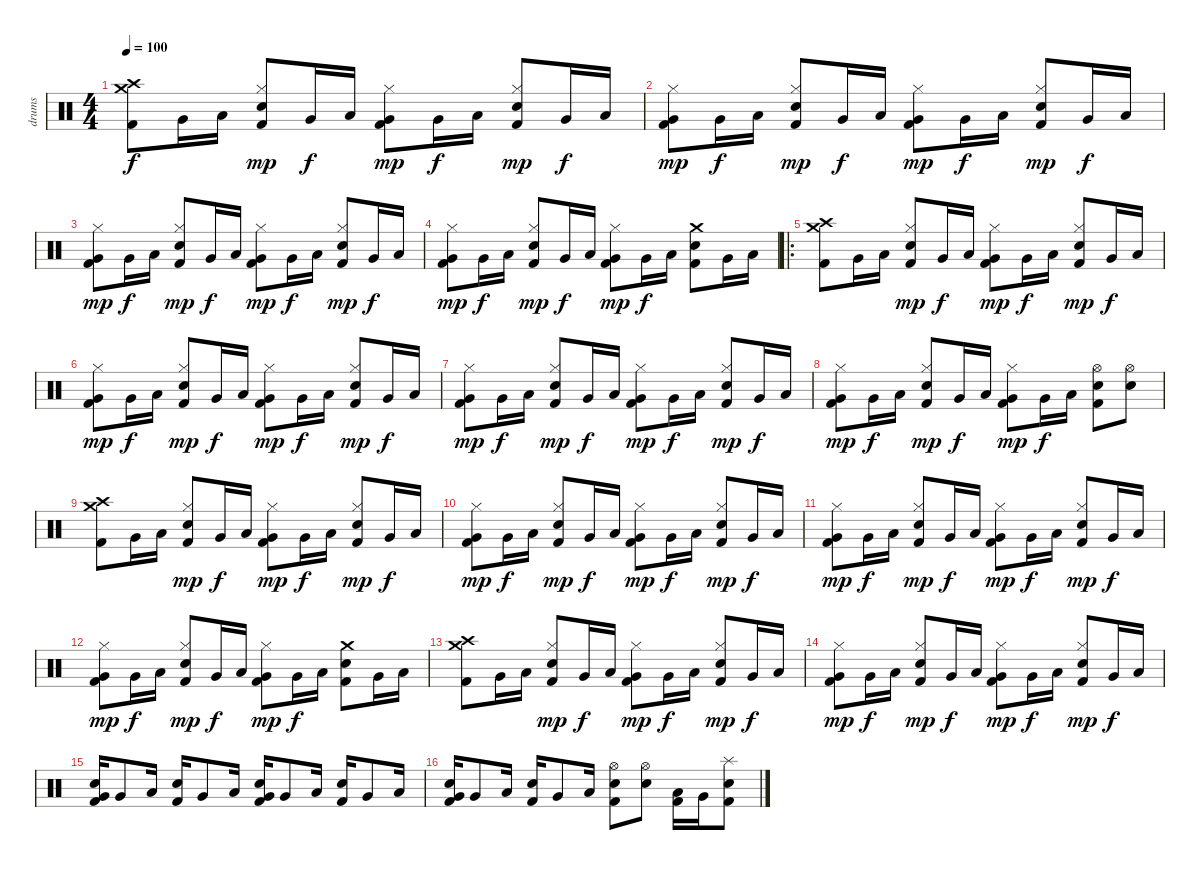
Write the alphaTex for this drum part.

\track ("drums" "drums") {instrument percussion}
\staff {score}
\articulation defaults
\ts (4 4)
\tempo 100
\clef neutral
\ks c
("Crash high (hit)" "Crash medium (hit)" "Kick (hit) 2").8{dy f} "Very Low Tom (hit)".16 "Low Floor Tom (hit)".16 ("Hi-Hat (closed)" "Electric Snare (hit)" "Kick (hit) 2").8{dy mp} "Very Low Tom (hit)".16{dy f} "Low Floor Tom (hit)".16 ("Hi-Hat (closed)" "Very Low Tom (hit)" "Kick (hit) 2").8{dy mp} "Very Low Tom (hit)".16{dy f} "Low Floor Tom (hit)".16 ("Hi-Hat (closed)" "Electric Snare (hit)" "Kick (hit) 2").8{dy mp} "Very Low Tom (hit)".16{dy f} "Low Floor Tom (hit)".16 |
("Hi-Hat (closed)" "Very Low Tom (hit)" "Kick (hit) 2").8{dy mp} "Very Low Tom (hit)".16{dy f} "Low Floor Tom (hit)".16 ("Hi-Hat (closed)" "Electric Snare (hit)" "Kick (hit) 2").8{dy mp} "Very Low Tom (hit)".16{dy f} "Low Floor Tom (hit)".16 ("Hi-Hat (closed)" "Very Low Tom (hit)" "Kick (hit) 2").8{dy mp} "Very Low Tom (hit)".16{dy f} "Low Floor Tom (hit)".16 ("Hi-Hat (closed)" "Electric Snare (hit)" "Kick (hit) 2").8{dy mp} "Very Low Tom (hit)".16{dy f} "Low Floor Tom (hit)".16 |
("Hi-Hat (closed)" "Very Low Tom (hit)" "Kick (hit) 2").8{dy mp} "Very Low Tom (hit)".16{dy f} "Low Floor Tom (hit)".16 ("Hi-Hat (closed)" "Electric Snare (hit)" "Kick (hit) 2").8{dy mp} "Very Low Tom (hit)".16{dy f} "Low Floor Tom (hit)".16 ("Hi-Hat (closed)" "Very Low Tom (hit)" "Kick (hit) 2").8{dy mp} "Very Low Tom (hit)".16{dy f} "Low Floor Tom (hit)".16 ("Hi-Hat (closed)" "Electric Snare (hit)" "Kick (hit) 2").8{dy mp} "Very Low Tom (hit)".16{dy f} "Low Floor Tom (hit)".16 |
("Hi-Hat (closed)" "Very Low Tom (hit)" "Kick (hit) 2").8{dy mp} "Very Low Tom (hit)".16{dy f} "Low Floor Tom (hit)".16 ("Hi-Hat (closed)" "Electric Snare (hit)" "Kick (hit) 2").8{dy mp} "Very Low Tom (hit)".16{dy f} "Low Floor Tom (hit)".16 ("Hi-Hat (closed)" "Very Low Tom (hit)" "Kick (hit) 2").8{dy mp} "Very Low Tom (hit)".16{dy f} "Low Floor Tom (hit)".16 ("Crash medium (hit)" "Electric Snare (hit)" "Kick (hit) 2").8 "Very Low Tom (hit)".16 "Low Floor Tom (hit)".16 |
\ro
("Crash high (hit)" "Crash medium (hit)" "Kick (hit) 2").8 "Very Low Tom (hit)".16 "Low Floor Tom (hit)".16 ("Hi-Hat (closed)" "Electric Snare (hit)" "Kick (hit) 2").8{dy mp} "Very Low Tom (hit)".16{dy f} "Low Floor Tom (hit)".16 ("Hi-Hat (closed)" "Very Low Tom (hit)" "Kick (hit) 2").8{dy mp} "Very Low Tom (hit)".16{dy f} "Low Floor Tom (hit)".16 ("Hi-Hat (closed)" "Electric Snare (hit)" "Kick (hit) 2").8{dy mp} "Very Low Tom (hit)".16{dy f} "Low Floor Tom (hit)".16 |
("Hi-Hat (closed)" "Very Low Tom (hit)" "Kick (hit) 2").8{dy mp} "Very Low Tom (hit)".16{dy f} "Low Floor Tom (hit)".16 ("Hi-Hat (closed)" "Electric Snare (hit)" "Kick (hit) 2").8{dy mp} "Very Low Tom (hit)".16{dy f} "Low Floor Tom (hit)".16 ("Hi-Hat (closed)" "Very Low Tom (hit)" "Kick (hit) 2").8{dy mp} "Very Low Tom (hit)".16{dy f} "Low Floor Tom (hit)".16 ("Hi-Hat (closed)" "Electric Snare (hit)" "Kick (hit) 2").8{dy mp} "Very Low Tom (hit)".16{dy f} "Low Floor Tom (hit)".16 |
("Hi-Hat (closed)" "Very Low Tom (hit)" "Kick (hit) 2").8{dy mp} "Very Low Tom (hit)".16{dy f} "Low Floor Tom (hit)".16 ("Hi-Hat (closed)" "Electric Snare (hit)" "Kick (hit) 2").8{dy mp} "Very Low Tom (hit)".16{dy f} "Low Floor Tom (hit)".16 ("Hi-Hat (closed)" "Very Low Tom (hit)" "Kick (hit) 2").8{dy mp} "Very Low Tom (hit)".16{dy f} "Low Floor Tom (hit)".16 ("Hi-Hat (closed)" "Electric Snare (hit)" "Kick (hit) 2").8{dy mp} "Very Low Tom (hit)".16{dy f} "Low Floor Tom (hit)".16 |
("Hi-Hat (closed)" "Very Low Tom (hit)" "Kick (hit) 2").8{dy mp} "Very Low Tom (hit)".16{dy f} "Low Floor Tom (hit)".16 ("Hi-Hat (closed)" "Electric Snare (hit)" "Kick (hit) 2").8{dy mp} "Very Low Tom (hit)".16{dy f} "Low Floor Tom (hit)".16 ("Hi-Hat (closed)" "Very Low Tom (hit)" "Kick (hit) 2").8{dy mp} "Very Low Tom (hit)".16{dy f} "Low Floor Tom (hit)".16 ("Hi-Hat (open)" "Electric Snare (hit)" "Kick (hit) 2").8 ("Hi-Hat (open)" "Electric Snare (hit)").8 |
("Crash high (hit)" "Crash medium (hit)" "Kick (hit) 2").8 "Very Low Tom (hit)".16 "Low Floor Tom (hit)".16 ("Hi-Hat (closed)" "Electric Snare (hit)" "Kick (hit) 2").8{dy mp} "Very Low Tom (hit)".16{dy f} "Low Floor Tom (hit)".16 ("Hi-Hat (closed)" "Very Low Tom (hit)" "Kick (hit) 2").8{dy mp} "Very Low Tom (hit)".16{dy f} "Low Floor Tom (hit)".16 ("Hi-Hat (closed)" "Electric Snare (hit)" "Kick (hit) 2").8{dy mp} "Very Low Tom (hit)".16{dy f} "Low Floor Tom (hit)".16 |
("Hi-Hat (closed)" "Very Low Tom (hit)" "Kick (hit) 2").8{dy mp} "Very Low Tom (hit)".16{dy f} "Low Floor Tom (hit)".16 ("Hi-Hat (closed)" "Electric Snare (hit)" "Kick (hit) 2").8{dy mp} "Very Low Tom (hit)".16{dy f} "Low Floor Tom (hit)".16 ("Hi-Hat (closed)" "Very Low Tom (hit)" "Kick (hit) 2").8{dy mp} "Very Low Tom (hit)".16{dy f} "Low Floor Tom (hit)".16 ("Hi-Hat (closed)" "Electric Snare (hit)" "Kick (hit) 2").8{dy mp} "Very Low Tom (hit)".16{dy f} "Low Floor Tom (hit)".16 |
("Hi-Hat (closed)" "Very Low Tom (hit)" "Kick (hit) 2").8{dy mp} "Very Low Tom (hit)".16{dy f} "Low Floor Tom (hit)".16 ("Hi-Hat (closed)" "Electric Snare (hit)" "Kick (hit) 2").8{dy mp} "Very Low Tom (hit)".16{dy f} "Low Floor Tom (hit)".16 ("Hi-Hat (closed)" "Very Low Tom (hit)" "Kick (hit) 2").8{dy mp} "Very Low Tom (hit)".16{dy f} "Low Floor Tom (hit)".16 ("Hi-Hat (closed)" "Electric Snare (hit)" "Kick (hit) 2").8{dy mp} "Very Low Tom (hit)".16{dy f} "Low Floor Tom (hit)".16 |
("Hi-Hat (closed)" "Very Low Tom (hit)" "Kick (hit) 2").8{dy mp} "Very Low Tom (hit)".16{dy f} "Low Floor Tom (hit)".16 ("Hi-Hat (closed)" "Electric Snare (hit)" "Kick (hit) 2").8{dy mp} "Very Low Tom (hit)".16{dy f} "Low Floor Tom (hit)".16 ("Hi-Hat (closed)" "Very Low Tom (hit)" "Kick (hit) 2").8{dy mp} "Very Low Tom (hit)".16{dy f} "Low Floor Tom (hit)".16 ("Crash medium (hit)" "Electric Snare (hit)" "Kick (hit) 2").8 "Very Low Tom (hit)".16 "Low Floor Tom (hit)".16 |
("Crash high (hit)" "Crash medium (hit)" "Kick (hit) 2").8 "Very Low Tom (hit)".16 "Low Floor Tom (hit)".16 ("Hi-Hat (closed)" "Electric Snare (hit)" "Kick (hit) 2").8{dy mp} "Very Low Tom (hit)".16{dy f} "Low Floor Tom (hit)".16 ("Hi-Hat (closed)" "Very Low Tom (hit)" "Kick (hit) 2").8{dy mp} "Very Low Tom (hit)".16{dy f} "Low Floor Tom (hit)".16 ("Hi-Hat (closed)" "Electric Snare (hit)" "Kick (hit) 2").8{dy mp} "Very Low Tom (hit)".16{dy f} "Low Floor Tom (hit)".16 |
("Hi-Hat (closed)" "Very Low Tom (hit)" "Kick (hit) 2").8{dy mp} "Very Low Tom (hit)".16{dy f} "Low Floor Tom (hit)".16 ("Hi-Hat (closed)" "Electric Snare (hit)" "Kick (hit) 2").8{dy mp} "Very Low Tom (hit)".16{dy f} "Low Floor Tom (hit)".16 ("Hi-Hat (closed)" "Very Low Tom (hit)" "Kick (hit) 2").8{dy mp} "Very Low Tom (hit)".16{dy f} "Low Floor Tom (hit)".16 ("Hi-Hat (closed)" "Electric Snare (hit)" "Kick (hit) 2").8{dy mp} "Very Low Tom (hit)".16{dy f} "Low Floor Tom (hit)".16 |
("Electric Snare (hit)" "Very Low Tom (hit)" "Kick (hit) 2").16 "Very Low Tom (hit)".8 "Low Floor Tom (hit)".16 ("Electric Snare (hit)" "Kick (hit) 2").16 "Very Low Tom (hit)".8 "Low Floor Tom (hit)".16 ("Electric Snare (hit)" "Very Low Tom (hit)" "Kick (hit) 2").16 "Very Low Tom (hit)".8 "Low Floor Tom (hit)".16 ("Electric Snare (hit)" "Kick (hit) 2").16 "Very Low Tom (hit)".8 "Low Floor Tom (hit)".16 |
("Electric Snare (hit)" "Very Low Tom (hit)" "Kick (hit) 2").16 "Very Low Tom (hit)".8 "Low Floor Tom (hit)".16 ("Electric Snare (hit)" "Kick (hit) 2").16 "Very Low Tom (hit)".8 "Low Floor Tom (hit)".16 ("Hi-Hat (open)" "Electric Snare (hit)" "Kick (hit) 2").8 ("Hi-Hat (open)" "Electric Snare (hit)").8 ("Low Floor Tom (hit)" "Kick (hit) 2").16 "Very Low Tom (hit)".16 ("Splash (hit)" "Electric Snare (hit)" "Kick (hit) 2").8
